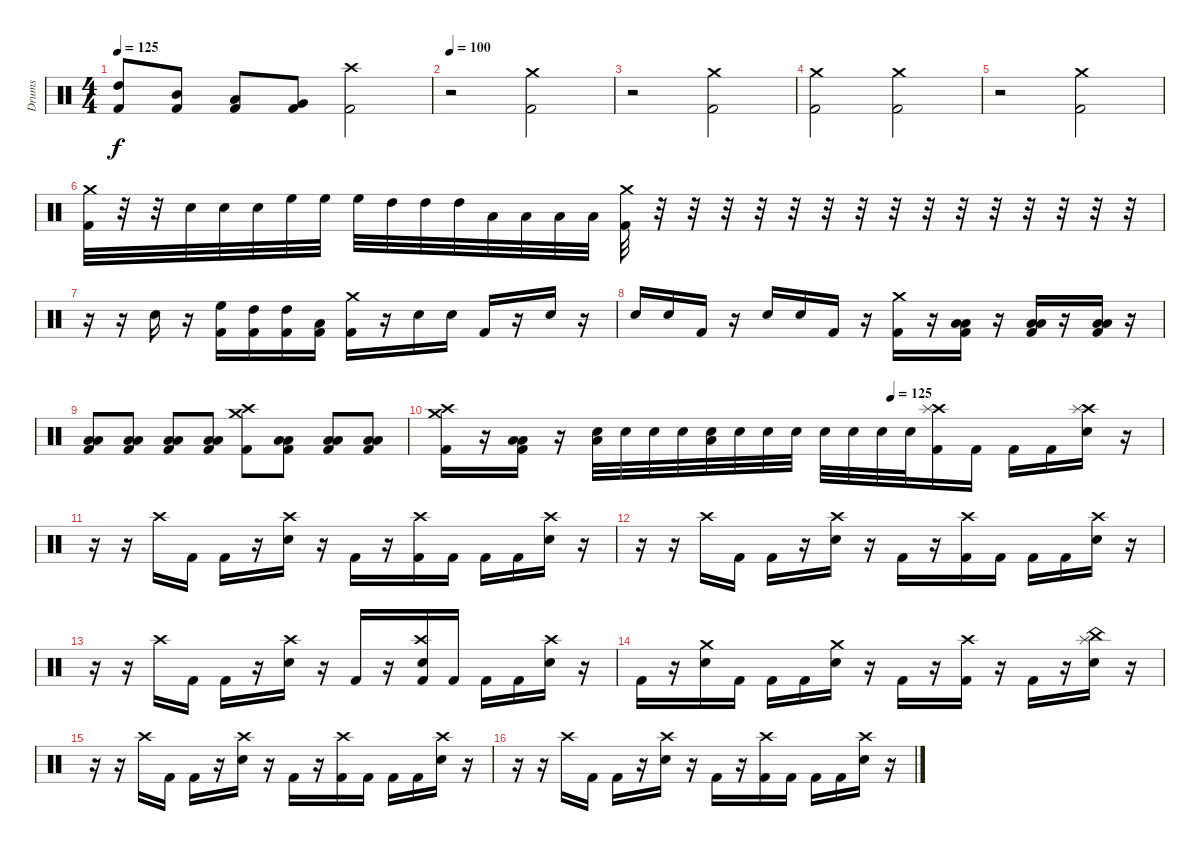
\track ("Drums" "Drums") {instrument percussion}
\staff {score}
\articulation defaults
\ts (4 4)
\tempo 125
\clef neutral
\ks c
("High Tom (hit)" "Kick (hit) 2").8{dy f} ("Mid Tom (hit)" "Kick (hit) 2").8 ("Low Tom (hit)" "Kick (hit) 2").8 ("Very Low Tom (hit)" "Kick (hit) 2").8 ("Crash high (hit)" "Kick (hit) 2").2 |
\tempo 100
r.2 ("Crash medium (hit)" "Kick (hit) 2").2 |
r.2 ("Crash medium (hit)" "Kick (hit) 2").2 |
("Crash medium (hit)" "Kick (hit) 2").2 ("Crash medium (hit)" "Kick (hit) 2").2 |
r.2 ("Crash medium (hit)" "Kick (hit) 2").2 |
("Crash medium (hit)" "Kick (hit) 2").32 r.32 r.32 "Snare (hit) 2".32 "Snare (hit) 2".32 "Snare (hit) 2".32 "High Floor Tom (hit)".32 "High Floor Tom (hit)".32 "High Floor Tom (hit)".32 "High Tom (hit)".32 "High Tom (hit)".32 "High Tom (hit)".32 "Low Floor Tom (hit)".32 "Low Floor Tom (hit)".32 "Low Floor Tom (hit)".32 "Low Floor Tom (hit)".32 ("Crash medium (hit)" "Kick (hit) 2").32 r.32 r.32 r.32 r.32 r.32 r.32 r.32 r.32 r.32 r.32 r.32 r.32 r.32 r.32 r.32 |
r.16 r.16 "Snare (hit) 2".16 r.16 ("High Floor Tom (hit)" "Kick (hit) 2").16 ("High Tom (hit)" "Kick (hit) 2").16 ("High Tom (hit)" "Kick (hit) 2").16 ("Low Floor Tom (hit)" "Kick (hit) 2").16 ("Crash medium (hit)" "Kick (hit) 2").16 r.16 "Snare (hit) 2".16 "Snare (hit) 2".16 "Kick (hit) 2".16 r.16 "Snare (hit) 2".16 r.16 |
"Snare (hit) 2".16 "Snare (hit) 2".16 "Kick (hit) 2".16 r.16 "Snare (hit) 2".16 "Snare (hit) 2".16 "Kick (hit) 2".16 r.16 ("Crash medium (hit)" "Kick (hit) 2").16 r.16 ("Low Tom (hit)" "Low Floor Tom (hit)" "Kick (hit) 2").16 r.16 ("Low Tom (hit)" "Low Floor Tom (hit)" "Kick (hit) 2").16 r.16 ("Low Tom (hit)" "Low Floor Tom (hit)" "Kick (hit) 2").16 r.16 |
("Low Tom (hit)" "Low Floor Tom (hit)" "Kick (hit) 2").8 ("Low Tom (hit)" "Low Floor Tom (hit)" "Kick (hit) 2").8 ("Low Tom (hit)" "Low Floor Tom (hit)" "Kick (hit) 2").8 ("Low Tom (hit)" "Low Floor Tom (hit)" "Kick (hit) 2").8 ("Crash medium (hit)" "Crash high (hit)" "Kick (hit) 2").8 ("Low Tom (hit)" "Low Floor Tom (hit)" "Kick (hit) 2").8 ("Low Tom (hit)" "Low Floor Tom (hit)" "Kick (hit) 2").8 ("Low Tom (hit)" "Low Floor Tom (hit)" "Kick (hit) 2").8 |
\tempo (125 0.625)
("Crash medium (hit)" "Crash high (hit)" "Kick (hit) 2").16 r.16 ("Low Tom (hit)" "Low Floor Tom (hit)" "Kick (hit) 2").16 r.16 ("Low Floor Tom (hit)" "Snare (hit) 2").32 "Snare (hit) 2".32 "Snare (hit) 2".32 "Snare (hit) 2".32 ("Low Floor Tom (hit)" "Snare (hit) 2").32 "Snare (hit) 2".32 "Snare (hit) 2".32 "Snare (hit) 2".32 "Snare (hit) 2".32 "Snare (hit) 2".32 "Snare (hit) 2".32 "Snare (hit) 2".32 ("Crash high (hit)" "Splash (hit)" "Kick (hit) 2").16 "Kick (hit) 2".16 "Kick (hit) 2".16 "Kick (hit) 2".16 ("Crash high (hit)" "Splash (hit)" "Snare (hit) 2").16 r.16 |
r.16 r.16 "Crash high (hit)".16 "Kick (hit) 2".16 "Kick (hit) 2".16 r.16 ("Crash high (hit)" "Snare (hit) 2").16 r.16 "Kick (hit) 2".16 r.16 ("Crash high (hit)" "Kick (hit) 2").16 "Kick (hit) 2".16 "Kick (hit) 2".16 "Kick (hit) 2".16 ("Crash high (hit)" "Snare (hit) 2").16 r.16 |
r.16 r.16 "Crash high (hit)".16 "Kick (hit) 2".16 "Kick (hit) 2".16 r.16 ("Crash high (hit)" "Snare (hit) 2").16 r.16 "Kick (hit) 2".16 r.16 ("Crash high (hit)" "Kick (hit) 2").16 "Kick (hit) 2".16 "Kick (hit) 2".16 "Kick (hit) 2".16 ("Crash high (hit)" "Snare (hit) 2").16 r.16 |
r.16 r.16 "Crash high (hit)".16 "Kick (hit) 2".16 "Kick (hit) 2".16 r.16 ("Crash high (hit)" "Snare (hit) 2").16 r.16 "Kick (hit) 2".16 r.16 ("Crash high (hit)" "Snare (hit) 2" "Kick (hit) 2").16 "Kick (hit) 2".16 "Kick (hit) 2".16 "Kick (hit) 2".16 ("Crash high (hit)" "Snare (hit) 2").16 r.16 |
"Kick (hit) 2".16 r.16 ("Crash medium (hit)" "Snare (hit) 2").16 "Kick (hit) 2".16 "Kick (hit) 2".16 "Kick (hit) 2".16 ("Crash medium (hit)" "Snare (hit) 2").16 r.16 "Kick (hit) 2".16 r.16 ("Crash high (hit)" "Kick (hit) 2").16 r.16 "Kick (hit) 2".16 r.16 ("China (hit)" "Splash (hit)" "Snare (hit) 2").16 r.16 |
r.16 r.16 "Crash high (hit)".16 "Kick (hit) 2".16 "Kick (hit) 2".16 r.16 ("Crash high (hit)" "Snare (hit) 2").16 r.16 "Kick (hit) 2".16 r.16 ("Crash high (hit)" "Kick (hit) 2").16 "Kick (hit) 2".16 "Kick (hit) 2".16 "Kick (hit) 2".16 ("Crash high (hit)" "Snare (hit) 2").16 r.16 |
r.16 r.16 "Crash high (hit)".16 "Kick (hit) 2".16 "Kick (hit) 2".16 r.16 ("Crash high (hit)" "Snare (hit) 2").16 r.16 "Kick (hit) 2".16 r.16 ("Crash high (hit)" "Kick (hit) 2").16 "Kick (hit) 2".16 "Kick (hit) 2".16 "Kick (hit) 2".16 ("Crash high (hit)" "Snare (hit) 2").16 r.16
